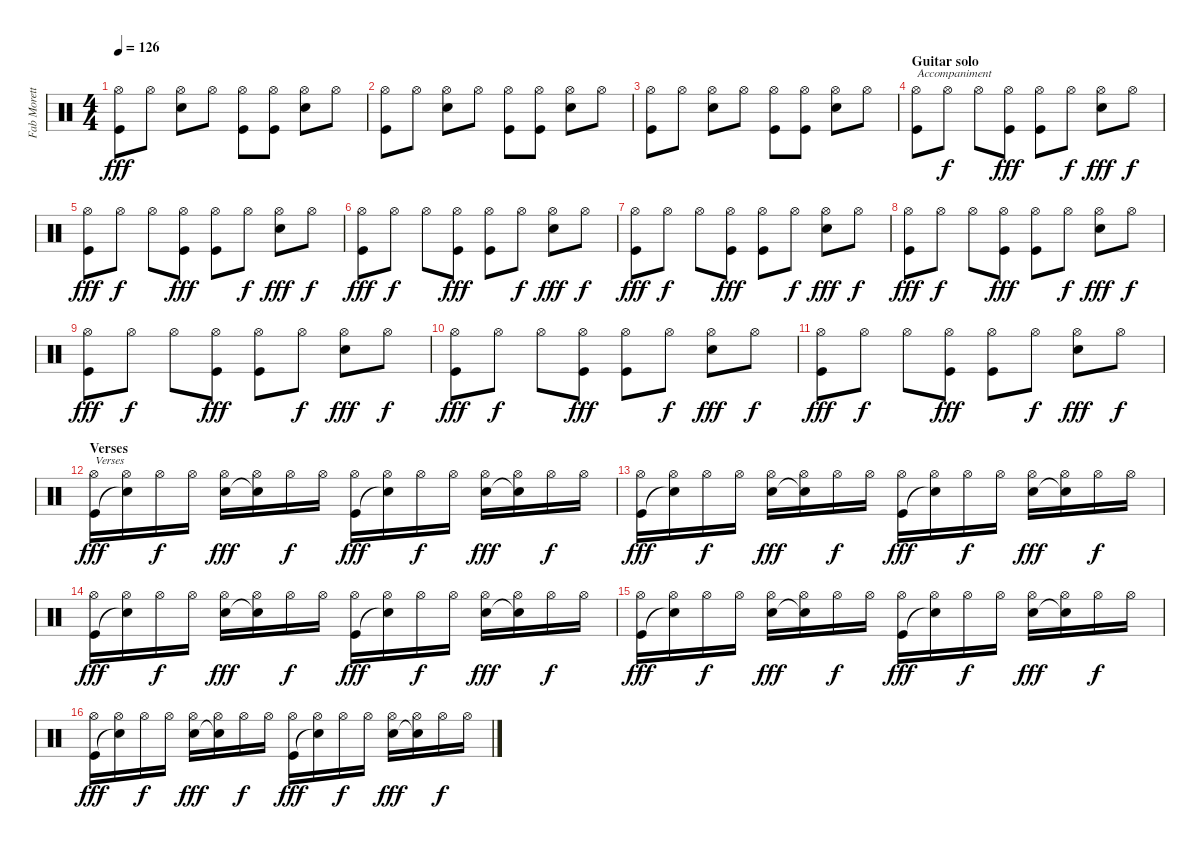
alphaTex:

\track ("Fab Moretti" "Fab Morett") {instrument percussion}
\staff {score}
\articulation defaults
\ts (4 4)
\tempo 126
\clef neutral
\ks c
("Hi-Hat (open)" "Kick (hit)").8{dy fff} "Hi-Hat (open)".8 ("Hi-Hat (open)" "Snare (hit) 2").8 "Hi-Hat (open)".8 ("Hi-Hat (open)" "Kick (hit)").8 ("Hi-Hat (open)" "Kick (hit)").8 ("Hi-Hat (open)" "Snare (hit) 2").8 "Hi-Hat (open)".8 |
("Hi-Hat (open)" "Kick (hit)").8 "Hi-Hat (open)".8 ("Hi-Hat (open)" "Snare (hit) 2").8 "Hi-Hat (open)".8 ("Hi-Hat (open)" "Kick (hit)").8 ("Hi-Hat (open)" "Kick (hit)").8 ("Hi-Hat (open)" "Snare (hit) 2").8 "Hi-Hat (open)".8 |
("Hi-Hat (open)" "Kick (hit)").8 "Hi-Hat (open)".8 ("Hi-Hat (open)" "Snare (hit) 2").8 "Hi-Hat (open)".8 ("Hi-Hat (open)" "Kick (hit)").8 ("Hi-Hat (open)" "Kick (hit)").8 ("Hi-Hat (open)" "Snare (hit) 2").8 "Hi-Hat (open)".8 |
\section ("" "Guitar solo")
("Kick (hit)" "Hi-Hat (open)").8{txt "Accompaniment"} "Hi-Hat (open)".8{dy f} "Hi-Hat (open)".8 ("Kick (hit)" "Hi-Hat (open)").8{dy fff} ("Kick (hit)" "Hi-Hat (open)").8 "Hi-Hat (open)".8{dy f} ("Snare (hit) 2" "Hi-Hat (open)").8{dy fff} "Hi-Hat (open)".8{dy f} |
("Kick (hit)" "Hi-Hat (open)").8{dy fff} "Hi-Hat (open)".8{dy f} "Hi-Hat (open)".8 ("Kick (hit)" "Hi-Hat (open)").8{dy fff} ("Kick (hit)" "Hi-Hat (open)").8 "Hi-Hat (open)".8{dy f} ("Snare (hit) 2" "Hi-Hat (open)").8{dy fff} "Hi-Hat (open)".8{dy f} |
("Kick (hit)" "Hi-Hat (open)").8{dy fff} "Hi-Hat (open)".8{dy f} "Hi-Hat (open)".8 ("Kick (hit)" "Hi-Hat (open)").8{dy fff} ("Kick (hit)" "Hi-Hat (open)").8 "Hi-Hat (open)".8{dy f} ("Snare (hit) 2" "Hi-Hat (open)").8{dy fff} "Hi-Hat (open)".8{dy f} |
("Kick (hit)" "Hi-Hat (open)").8{dy fff} "Hi-Hat (open)".8{dy f} "Hi-Hat (open)".8 ("Kick (hit)" "Hi-Hat (open)").8{dy fff} ("Kick (hit)" "Hi-Hat (open)").8 "Hi-Hat (open)".8{dy f} ("Snare (hit) 2" "Hi-Hat (open)").8{dy fff} "Hi-Hat (open)".8{dy f} |
("Kick (hit)" "Hi-Hat (open)").8{dy fff} "Hi-Hat (open)".8{dy f} "Hi-Hat (open)".8 ("Kick (hit)" "Hi-Hat (open)").8{dy fff} ("Kick (hit)" "Hi-Hat (open)").8 "Hi-Hat (open)".8{dy f} ("Snare (hit) 2" "Hi-Hat (open)").8{dy fff} "Hi-Hat (open)".8{dy f} |
("Kick (hit)" "Hi-Hat (open)").8{dy fff} "Hi-Hat (open)".8{dy f} "Hi-Hat (open)".8 ("Kick (hit)" "Hi-Hat (open)").8{dy fff} ("Kick (hit)" "Hi-Hat (open)").8 "Hi-Hat (open)".8{dy f} ("Snare (hit) 2" "Hi-Hat (open)").8{dy fff} "Hi-Hat (open)".8{dy f} |
("Kick (hit)" "Hi-Hat (open)").8{dy fff} "Hi-Hat (open)".8{dy f} "Hi-Hat (open)".8 ("Kick (hit)" "Hi-Hat (open)").8{dy fff} ("Kick (hit)" "Hi-Hat (open)").8 "Hi-Hat (open)".8{dy f} ("Snare (hit) 2" "Hi-Hat (open)").8{dy fff} "Hi-Hat (open)".8{dy f} |
("Kick (hit)" "Hi-Hat (open)").8{dy fff} "Hi-Hat (open)".8{dy f} "Hi-Hat (open)".8 ("Kick (hit)" "Hi-Hat (open)").8{dy fff} ("Kick (hit)" "Hi-Hat (open)").8 "Hi-Hat (open)".8{dy f} ("Snare (hit) 2" "Hi-Hat (open)").8{dy fff} "Hi-Hat (open)".8{dy f} |
\section ("" "Verses")
("Hi-Hat (open)" "Kick (hit)").16{txt "Verses" dy fff} ("Hi-Hat (open)" "Snare (hit)"{t}).16 "Hi-Hat (open)".16{dy f} "Hi-Hat (open)".16 ("Hi-Hat (open)" "Snare (hit) 2").16{dy fff} ("Hi-Hat (open)" "Snare (hit)"{t}).16 "Hi-Hat (open)".16{dy f} "Hi-Hat (open)".16 ("Hi-Hat (open)" "Kick (hit)").16{dy fff} ("Hi-Hat (open)" "Snare (hit)"{t}).16 "Hi-Hat (open)".16{dy f} "Hi-Hat (open)".16 ("Hi-Hat (open)" "Snare (hit) 2").16{dy fff} ("Hi-Hat (open)" "Snare (hit)"{t}).16 "Hi-Hat (open)".16{dy f} "Hi-Hat (open)".16 |
("Hi-Hat (open)" "Kick (hit)").16{dy fff} ("Hi-Hat (open)" "Snare (hit)"{t}).16 "Hi-Hat (open)".16{dy f} "Hi-Hat (open)".16 ("Hi-Hat (open)" "Snare (hit) 2").16{dy fff} ("Hi-Hat (open)" "Snare (hit)"{t}).16 "Hi-Hat (open)".16{dy f} "Hi-Hat (open)".16 ("Hi-Hat (open)" "Kick (hit)").16{dy fff} ("Hi-Hat (open)" "Snare (hit)"{t}).16 "Hi-Hat (open)".16{dy f} "Hi-Hat (open)".16 ("Hi-Hat (open)" "Snare (hit) 2").16{dy fff} ("Hi-Hat (open)" "Snare (hit)"{t}).16 "Hi-Hat (open)".16{dy f} "Hi-Hat (open)".16 |
("Hi-Hat (open)" "Kick (hit)").16{dy fff} ("Hi-Hat (open)" "Snare (hit)"{t}).16 "Hi-Hat (open)".16{dy f} "Hi-Hat (open)".16 ("Hi-Hat (open)" "Snare (hit) 2").16{dy fff} ("Hi-Hat (open)" "Snare (hit)"{t}).16 "Hi-Hat (open)".16{dy f} "Hi-Hat (open)".16 ("Hi-Hat (open)" "Kick (hit)").16{dy fff} ("Hi-Hat (open)" "Snare (hit)"{t}).16 "Hi-Hat (open)".16{dy f} "Hi-Hat (open)".16 ("Hi-Hat (open)" "Snare (hit) 2").16{dy fff} ("Hi-Hat (open)" "Snare (hit)"{t}).16 "Hi-Hat (open)".16{dy f} "Hi-Hat (open)".16 |
("Hi-Hat (open)" "Kick (hit)").16{dy fff} ("Hi-Hat (open)" "Snare (hit)"{t}).16 "Hi-Hat (open)".16{dy f} "Hi-Hat (open)".16 ("Hi-Hat (open)" "Snare (hit) 2").16{dy fff} ("Hi-Hat (open)" "Snare (hit)"{t}).16 "Hi-Hat (open)".16{dy f} "Hi-Hat (open)".16 ("Hi-Hat (open)" "Kick (hit)").16{dy fff} ("Hi-Hat (open)" "Snare (hit)"{t}).16 "Hi-Hat (open)".16{dy f} "Hi-Hat (open)".16 ("Hi-Hat (open)" "Snare (hit) 2").16{dy fff} ("Hi-Hat (open)" "Snare (hit)"{t}).16 "Hi-Hat (open)".16{dy f} "Hi-Hat (open)".16 |
("Hi-Hat (open)" "Kick (hit)").16{dy fff} ("Hi-Hat (open)" "Snare (hit)"{t}).16 "Hi-Hat (open)".16{dy f} "Hi-Hat (open)".16 ("Hi-Hat (open)" "Snare (hit) 2").16{dy fff} ("Hi-Hat (open)" "Snare (hit)"{t}).16 "Hi-Hat (open)".16{dy f} "Hi-Hat (open)".16 ("Hi-Hat (open)" "Kick (hit)").16{dy fff} ("Hi-Hat (open)" "Snare (hit)"{t}).16 "Hi-Hat (open)".16{dy f} "Hi-Hat (open)".16 ("Hi-Hat (open)" "Snare (hit) 2").16{dy fff} ("Hi-Hat (open)" "Snare (hit)"{t}).16 "Hi-Hat (open)".16{dy f} "Hi-Hat (open)".16
